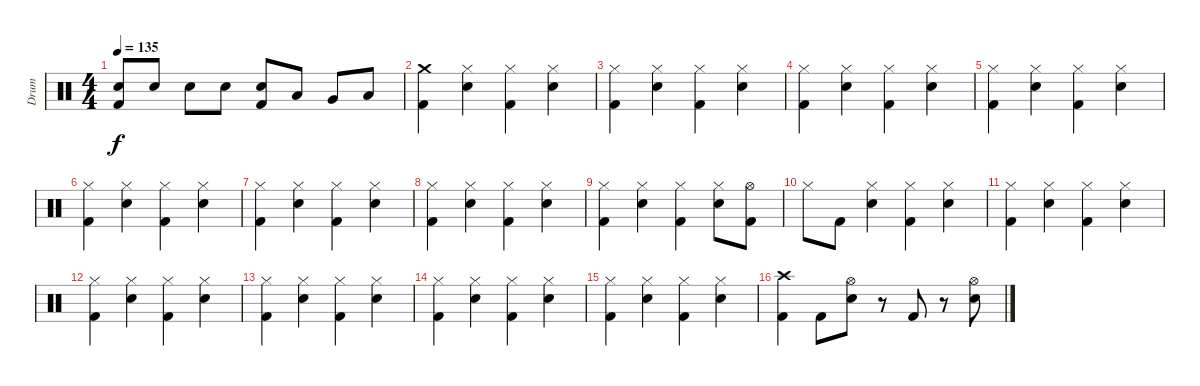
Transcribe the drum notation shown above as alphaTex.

\track ("Drum" "Drum") {instrument percussion}
\staff {score}
\articulation defaults
\ts (4 4)
\tempo 135
\clef neutral
\ks c
("Electric Snare (hit)" "Kick (hit) 2").8{dy f} "Electric Snare (hit)".8 "Electric Snare (hit)".8 "Electric Snare (hit)".8 ("Electric Snare (hit)" "Kick (hit) 2").8 "Low Tom (hit)".8 "Very Low Tom (hit)".8 "Low Floor Tom (hit)".8 |
("Kick (hit) 2" "Crash medium (hit)").4 ("Hi-Hat (closed)" "Electric Snare (hit)").4 ("Hi-Hat (closed)" "Kick (hit) 2").4 ("Hi-Hat (closed)" "Electric Snare (hit)").4 |
("Hi-Hat (closed)" "Kick (hit) 2").4 ("Hi-Hat (closed)" "Electric Snare (hit)").4 ("Kick (hit) 2" "Hi-Hat (closed)").4 ("Electric Snare (hit)" "Hi-Hat (closed)").4 |
("Hi-Hat (closed)" "Kick (hit) 2").4 ("Hi-Hat (closed)" "Electric Snare (hit)").4 ("Hi-Hat (closed)" "Kick (hit) 2").4 ("Hi-Hat (closed)" "Electric Snare (hit)").4 |
("Hi-Hat (closed)" "Kick (hit) 2").4 ("Hi-Hat (closed)" "Electric Snare (hit)").4 ("Kick (hit) 2" "Hi-Hat (closed)").4 ("Electric Snare (hit)" "Hi-Hat (closed)").4 |
("Hi-Hat (closed)" "Kick (hit) 2").4 ("Hi-Hat (closed)" "Electric Snare (hit)").4 ("Hi-Hat (closed)" "Kick (hit) 2").4 ("Hi-Hat (closed)" "Electric Snare (hit)").4 |
("Hi-Hat (closed)" "Kick (hit) 2").4 ("Hi-Hat (closed)" "Electric Snare (hit)").4 ("Kick (hit) 2" "Hi-Hat (closed)").4 ("Electric Snare (hit)" "Hi-Hat (closed)").4 |
("Hi-Hat (closed)" "Kick (hit) 2").4 ("Hi-Hat (closed)" "Electric Snare (hit)").4 ("Hi-Hat (closed)" "Kick (hit) 2").4 ("Hi-Hat (closed)" "Electric Snare (hit)").4 |
("Hi-Hat (closed)" "Kick (hit) 2").4 ("Hi-Hat (closed)" "Electric Snare (hit)").4 ("Kick (hit) 2" "Hi-Hat (closed)").4 ("Electric Snare (hit)" "Hi-Hat (closed)").8 ("Kick (hit) 2" "Hi-Hat (open)").8 |
"Hi-Hat (closed)".8 "Kick (hit) 2".8 ("Hi-Hat (closed)" "Electric Snare (hit)").4 ("Hi-Hat (closed)" "Kick (hit) 2").4 ("Hi-Hat (closed)" "Electric Snare (hit)").4 |
("Hi-Hat (closed)" "Kick (hit) 2").4 ("Hi-Hat (closed)" "Electric Snare (hit)").4 ("Kick (hit) 2" "Hi-Hat (closed)").4 ("Electric Snare (hit)" "Hi-Hat (closed)").4 |
("Hi-Hat (closed)" "Kick (hit) 2").4 ("Hi-Hat (closed)" "Electric Snare (hit)").4 ("Hi-Hat (closed)" "Kick (hit) 2").4 ("Hi-Hat (closed)" "Electric Snare (hit)").4 |
("Hi-Hat (closed)" "Kick (hit) 2").4 ("Hi-Hat (closed)" "Electric Snare (hit)").4 ("Kick (hit) 2" "Hi-Hat (closed)").4 ("Electric Snare (hit)" "Hi-Hat (closed)").4 |
("Hi-Hat (closed)" "Kick (hit) 2").4 ("Hi-Hat (closed)" "Electric Snare (hit)").4 ("Hi-Hat (closed)" "Kick (hit) 2").4 ("Hi-Hat (closed)" "Electric Snare (hit)").4 |
("Hi-Hat (closed)" "Kick (hit) 2").4 ("Hi-Hat (closed)" "Electric Snare (hit)").4 ("Kick (hit) 2" "Hi-Hat (closed)").4 ("Electric Snare (hit)" "Hi-Hat (closed)").4 |
("Kick (hit) 2" "Crash high (hit)").4 "Kick (hit) 2".8 ("Hi-Hat (open)" "Electric Snare (hit)").8 r.8 "Kick (hit) 2".8 r.8 ("Hi-Hat (open)" "Electric Snare (hit)").8
